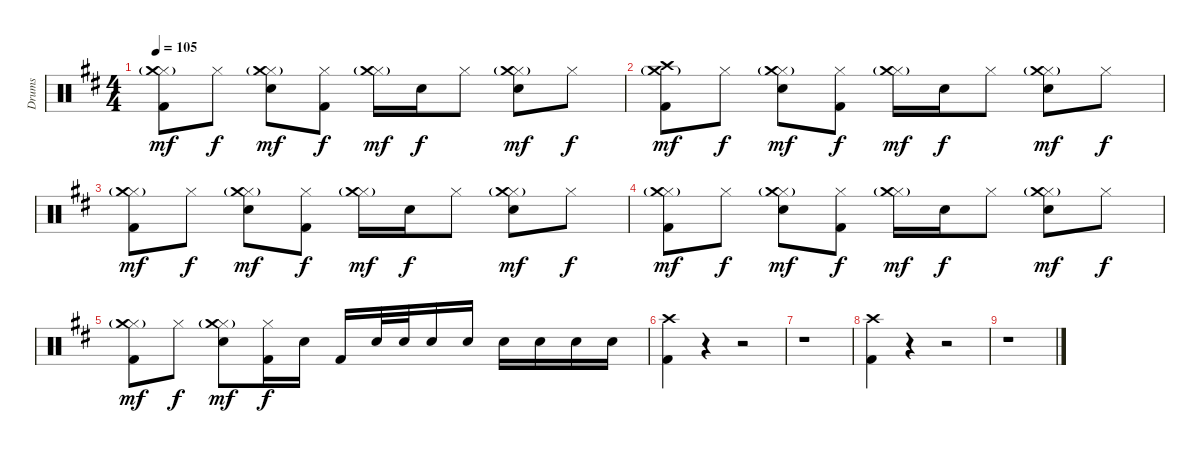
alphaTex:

\track ("Drums" "Drums") {instrument percussion}
\staff {score}
\articulation defaults
\ts (4 4)
\tempo 105
\clef neutral
\ks bminor
("Hi-Hat (closed)" "Crash medium (hit)"{g} "Kick (hit) 2").8{dy mf} "Hi-Hat (closed)".8{dy f} ("Hi-Hat (closed)" "Crash medium (hit)"{g} "Electric Snare (hit)").8{dy mf} ("Hi-Hat (closed)" "Kick (hit) 2").8{dy f} ("Hi-Hat (closed)" "Crash medium (hit)"{g}).16{dy mf} "Electric Snare (hit)".16{dy f} "Hi-Hat (closed)".8 ("Hi-Hat (closed)" "Crash medium (hit)"{g} "Electric Snare (hit)").8{dy mf} "Hi-Hat (closed)".8{dy f} |
("Crash high (hit)" "Crash medium (hit)"{g} "Kick (hit) 2").8{dy mf} "Hi-Hat (closed)".8{dy f} ("Hi-Hat (closed)" "Crash medium (hit)"{g} "Electric Snare (hit)").8{dy mf} ("Hi-Hat (closed)" "Kick (hit) 2").8{dy f} ("Hi-Hat (closed)" "Crash medium (hit)"{g}).16{dy mf} "Electric Snare (hit)".16{dy f} "Hi-Hat (closed)".8 ("Hi-Hat (closed)" "Crash medium (hit)"{g} "Electric Snare (hit)").8{dy mf} "Hi-Hat (closed)".8{dy f} |
("Hi-Hat (closed)" "Crash medium (hit)"{g} "Kick (hit) 2").8{dy mf} "Hi-Hat (closed)".8{dy f} ("Hi-Hat (closed)" "Crash medium (hit)"{g} "Electric Snare (hit)").8{dy mf} ("Hi-Hat (closed)" "Kick (hit) 2").8{dy f} ("Hi-Hat (closed)" "Crash medium (hit)"{g}).16{dy mf} "Electric Snare (hit)".16{dy f} "Hi-Hat (closed)".8 ("Hi-Hat (closed)" "Crash medium (hit)"{g} "Electric Snare (hit)").8{dy mf} "Hi-Hat (closed)".8{dy f} |
("Hi-Hat (closed)" "Crash medium (hit)"{g} "Kick (hit) 2").8{dy mf} "Hi-Hat (closed)".8{dy f} ("Hi-Hat (closed)" "Crash medium (hit)"{g} "Electric Snare (hit)").8{dy mf} ("Hi-Hat (closed)" "Kick (hit) 2").8{dy f} ("Hi-Hat (closed)" "Crash medium (hit)"{g}).16{dy mf} "Electric Snare (hit)".16{dy f} "Hi-Hat (closed)".8 ("Hi-Hat (closed)" "Crash medium (hit)"{g} "Electric Snare (hit)").8{dy mf} "Hi-Hat (closed)".8{dy f} |
("Hi-Hat (closed)" "Crash medium (hit)"{g} "Kick (hit) 2").8{dy mf} "Hi-Hat (closed)".8{dy f} ("Hi-Hat (closed)" "Crash medium (hit)"{g} "Electric Snare (hit)").8{dy mf} ("Hi-Hat (closed)" "Kick (hit) 2").16{dy f} "Electric Snare (hit)".16 "Kick (hit) 2".16 "Electric Snare (hit)".32 "Electric Snare (hit)".32 "Electric Snare (hit)".16 "Electric Snare (hit)".16 "Electric Snare (hit)".16 "Electric Snare (hit)".16 "Electric Snare (hit)".16 "Electric Snare (hit)".16 |
("Crash high (hit)" "Kick (hit) 2").4 r.4 r.2 |
r.1 |
("Crash high (hit)" "Kick (hit) 2").4 r.4 r.2 |
r.1
